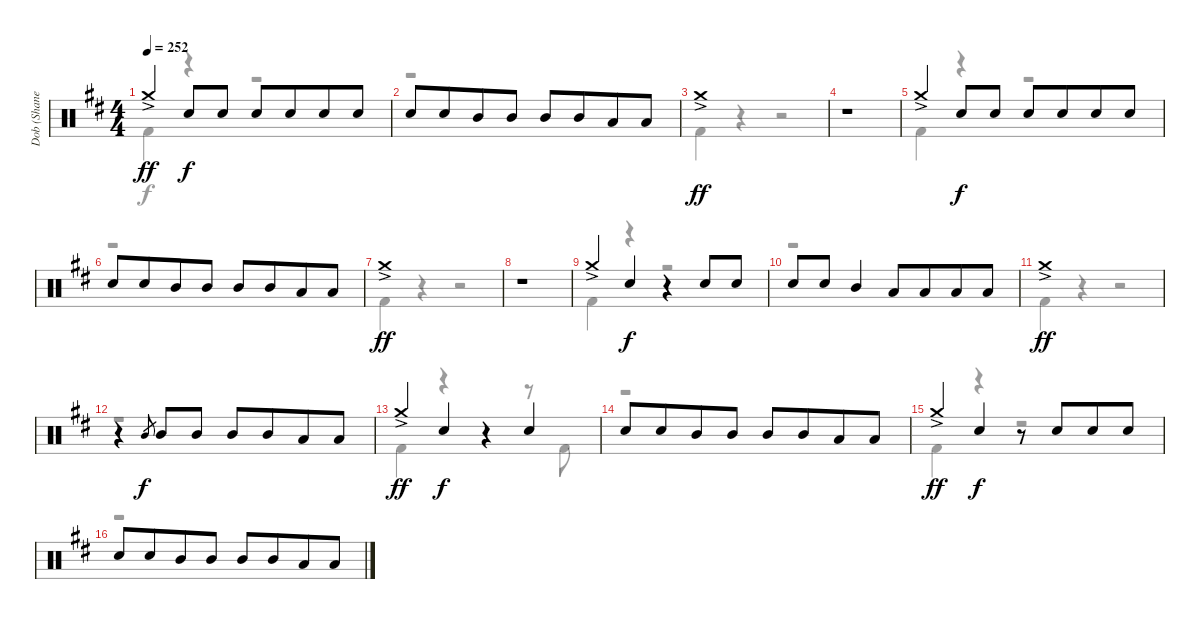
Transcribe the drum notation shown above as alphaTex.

\track ("Dob (Shane Gaalaas)" "Dob (Shane") {instrument percussion}
\staff {score}
\articulation defaults
\voice
\ts (4 4)
\tempo 252
\clef neutral
\ks d "Crash medium (hit)"{ac}.4{dy ff} "Electric Snare (hit)".8{dy f} "Electric Snare (hit)".8 "Electric Snare (hit)".8 "Electric Snare (hit)".8{beam merge} "Electric Snare (hit)".8 "Electric Snare (hit)".8
|
"Electric Snare (hit)".8 "Electric Snare (hit)".8{beam merge} "Mid Tom (hit)".8 "Mid Tom (hit)".8 "Mid Tom (hit)".8 "Mid Tom (hit)".8{beam merge} "Low Tom (hit)".8 "Low Tom (hit)".8 |
"Crash medium (hit)"{ac}.1{dy ff} |
r.1 |
"Crash medium (hit)"{ac}.4 "Electric Snare (hit)".8{dy f} "Electric Snare (hit)".8 "Electric Snare (hit)".8 "Electric Snare (hit)".8{beam merge} "Electric Snare (hit)".8 "Electric Snare (hit)".8 |
"Electric Snare (hit)".8 "Electric Snare (hit)".8{beam merge} "Mid Tom (hit)".8 "Mid Tom (hit)".8 "Mid Tom (hit)".8 "Mid Tom (hit)".8{beam merge} "Low Tom (hit)".8 "Low Tom (hit)".8 |
"Crash medium (hit)"{ac}.1{dy ff} |
r.1 |
"Crash medium (hit)"{ac}.4 "Electric Snare (hit)".4{dy f} r.4 "Electric Snare (hit)".8 "Electric Snare (hit)".8 |
"Electric Snare (hit)".8 "Electric Snare (hit)".8 "Mid Tom (hit)".4 "Low Tom (hit)".8 "Low Tom (hit)".8{beam merge} "Low Tom (hit)".8 "Low Tom (hit)".8 |
"Crash medium (hit)"{ac}.1{dy ff} |
r.4 "Mid Tom (hit)".8{gr dy f} "Mid Tom (hit)".8 "Mid Tom (hit)".8 "Mid Tom (hit)".8 "Mid Tom (hit)".8{beam merge} "Low Tom (hit)".8 "Low Tom (hit)".8 |
"Crash medium (hit)"{ac}.4{dy ff} "Electric Snare (hit)".4{dy f} r.4 "Electric Snare (hit)".4 |
"Electric Snare (hit)".8 "Electric Snare (hit)".8{beam merge} "Mid Tom (hit)".8 "Mid Tom (hit)".8 "Mid Tom (hit)".8 "Mid Tom (hit)".8{beam merge} "Low Tom (hit)".8 "Low Tom (hit)".8 |
"Crash medium (hit)"{ac}.4{dy ff} "Electric Snare (hit)".4{dy f} r.8 "Electric Snare (hit)".8{beam merge} "Electric Snare (hit)".8 "Electric Snare (hit)".8 |
"Electric Snare (hit)".8 "Electric Snare (hit)".8{beam merge} "Mid Tom (hit)".8 "Mid Tom (hit)".8 "Mid Tom (hit)".8 "Mid Tom (hit)".8{beam merge} "Low Tom (hit)".8 "Low Tom (hit)".8
\voice
\clef neutral
\ottava regular
\simile none
\ks d "Kick (hit) 2".4{dy f}
r.4 r.2 |
r.1 |
"Kick (hit) 2".4 r.4 r.2 |
r.1 |
"Kick (hit) 2".4 r.4 r.2 |
r.1 |
"Kick (hit) 2".4 r.4 r.2 |
r.1 |
"Kick (hit) 2".4 r.4 r.2 |
r.1 |
"Kick (hit) 2".4 r.4 r.2 |
r.1 |
"Kick (hit) 2".4 r.4 r.4 r.8 "Kick (hit) 2".8 |
r.1 |
"Kick (hit) 2".4 r.4 r.2 |
r.1
